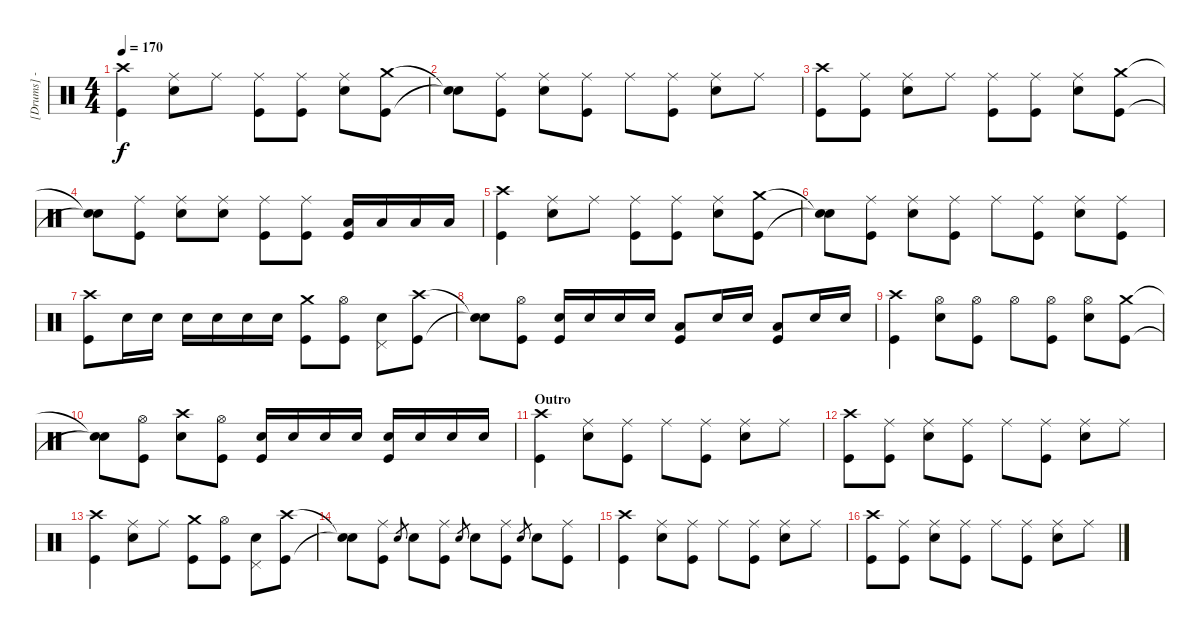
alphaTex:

\track ("[Drums] - Trè Cool" "[Drums] - ") {instrument percussion}
\staff {score}
\articulation defaults
\ts (4 4)
\tempo 170
\clef neutral
\ks c
("Kick (hit)" "Crash high (hit)").4{dy f} ("Snare (hit) 2" "Ride (middle)").8 "Ride (middle)".8 ("Kick (hit)" "Ride (middle)").8 ("Kick (hit)" "Ride (middle)").8 ("Snare (hit) 2" "Ride (middle)").8 ("Kick (hit)" "Crash medium (hit)").8 |
("Snare (hit)"{t} "Snare (hit)"{t}).8 ("Kick (hit)" "Ride (middle)").8 ("Snare (hit) 2" "Ride (middle)").8 ("Kick (hit)" "Ride (middle)").8 "Ride (middle)".8 ("Kick (hit)" "Ride (middle)").8 ("Snare (hit) 2" "Ride (middle)").8 "Ride (middle)".8 |
("Kick (hit)" "Crash high (hit)").8 ("Kick (hit)" "Ride (middle)").8 ("Snare (hit) 2" "Ride (middle)").8 "Ride (middle)".8 ("Kick (hit)" "Ride (middle)").8 ("Kick (hit)" "Ride (middle)").8 ("Snare (hit) 2" "Ride (middle)").8 ("Kick (hit)" "Crash medium (hit)").8 |
("Snare (hit)"{t} "Snare (hit)"{t}).8 ("Kick (hit)" "Ride (middle)").8 ("Snare (hit) 2" "Ride (middle)").8 ("Ride (middle)" "Snare (hit) 2").8 ("Kick (hit)" "Ride (middle)").8 ("Kick (hit)" "Ride (middle)").8 ("Low Tom (hit)" "Kick (hit)").16 "Low Tom (hit)".16 "Low Floor Tom (hit)".16 "Low Floor Tom (hit)".16 |
("Kick (hit)" "Crash high (hit)").4 ("Snare (hit) 2" "Ride (middle)").8 "Ride (middle)".8 ("Kick (hit)" "Ride (middle)").8 ("Kick (hit)" "Ride (middle)").8 ("Snare (hit) 2" "Ride (middle)").8 ("Kick (hit)" "Crash medium (hit)").8 |
("Snare (hit)"{t} "Snare (hit)"{t}).8 ("Kick (hit)" "Ride (middle)").8 ("Snare (hit) 2" "Ride (middle)").8 ("Kick (hit)" "Ride (middle)").8 "Ride (middle)".8 ("Kick (hit)" "Ride (middle)").8 ("Snare (hit) 2" "Ride (middle)").8 ("Ride (middle)" "Kick (hit)").8 |
("Kick (hit)" "Crash high (hit)").8 "Snare (hit) 2".16 "Snare (hit) 2".16 "Snare (hit) 2".16 "Snare (hit) 2".16 "Snare (hit) 2".16 "Snare (hit) 2".16 ("Kick (hit)" "Crash medium (hit)").8 ("Kick (hit)" "Hi-Hat (open)").8 ("Snare (hit) 2" "Pedal Hi-Hat (hit)").8 ("Kick (hit)" "Crash high (hit)").8 |
("Snare (hit)"{t} "Snare (hit)"{t}).8 ("Kick (hit)" "Hi-Hat (open)").8 ("Snare (hit) 2" "Kick (hit)").16 "Snare (hit) 2".16 "Snare (hit) 2".16 "Snare (hit) 2".16 ("Low Tom (hit)" "Kick (hit)").8 "Snare (hit) 2".16 "Snare (hit) 2".16 ("Low Floor Tom (hit)" "Kick (hit)").8 "Snare (hit) 2".16 "Snare (hit) 2".16 |
("Kick (hit)" "Crash high (hit)").4 ("Snare (hit) 2" "Hi-Hat (open)").8 ("Kick (hit)" "Hi-Hat (open)").8 "Hi-Hat (open)".8 ("Kick (hit)" "Hi-Hat (open)").8 ("Snare (hit) 2" "Hi-Hat (open)").8 ("Kick (hit)" "Crash medium (hit)").8 |
("Snare (hit)"{t} "Snare (hit)"{t}).8 ("Kick (hit)" "Hi-Hat (open)").8 ("Snare (hit) 2" "Crash high (hit)").8 ("Hi-Hat (open)" "Kick (hit)").8 ("Snare (hit) 2" "Kick (hit)").16 "Snare (hit) 2".16 "Snare (hit) 2".16 "Snare (hit) 2".16 ("Snare (hit) 2" "Kick (hit)").16 "Snare (hit) 2".16 "Snare (hit) 2".16 "Snare (hit) 2".16 |
\section ("" "Outro")
("Kick (hit)" "Crash high (hit)").4 ("Snare (hit) 2" "Ride (middle)").8 ("Kick (hit)" "Ride (middle)").8 "Ride (middle)".8 ("Kick (hit)" "Ride (middle)").8 ("Snare (hit) 2" "Ride (middle)").8 "Ride (middle)".8 |
("Kick (hit)" "Crash high (hit)").8 ("Kick (hit)" "Ride (middle)").8 ("Snare (hit) 2" "Ride (middle)").8 ("Kick (hit)" "Ride (middle)").8 "Ride (middle)".8 ("Kick (hit)" "Ride (middle)").8 ("Snare (hit) 2" "Ride (middle)").8 "Ride (middle)".8 |
("Kick (hit)" "Crash high (hit)").4 ("Snare (hit) 2" "Ride (middle)").8 "Ride (middle)".8 ("Kick (hit)" "Crash medium (hit)").8 ("Kick (hit)" "Hi-Hat (open)").8 ("Snare (hit) 2" "Pedal Hi-Hat (hit)").8 ("Kick (hit)" "Crash high (hit)").8 |
("Snare (hit)"{t} "Snare (hit)"{t}).8 ("Kick (hit)" "Ride (middle)").8 "Snare (hit)".8{gr} "Snare (hit) 2".8 ("Kick (hit)" "Ride (middle)").8 "Snare (hit)".8{gr} "Snare (hit) 2".8 ("Kick (hit)" "Ride (middle)").8 "Snare (hit)".8{gr} "Snare (hit) 2".8 ("Kick (hit)" "Ride (middle)").8 |
("Kick (hit)" "Crash high (hit)").4 ("Snare (hit) 2" "Ride (middle)").8 ("Kick (hit)" "Ride (middle)").8 "Ride (middle)".8 ("Kick (hit)" "Ride (middle)").8 ("Snare (hit) 2" "Ride (middle)").8 "Ride (middle)".8 |
("Kick (hit)" "Crash high (hit)").8 ("Kick (hit)" "Ride (middle)").8 ("Snare (hit) 2" "Ride (middle)").8 ("Kick (hit)" "Ride (middle)").8 "Ride (middle)".8 ("Kick (hit)" "Ride (middle)").8 ("Snare (hit) 2" "Ride (middle)").8 "Ride (middle)".8
